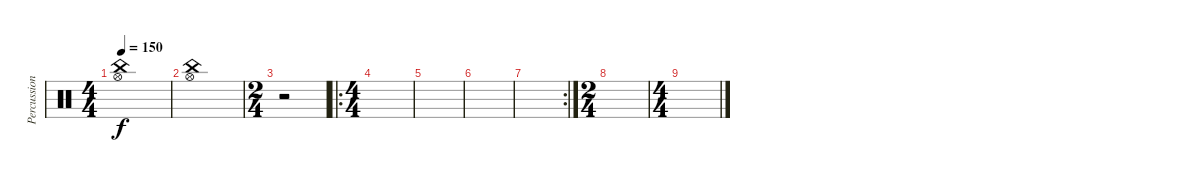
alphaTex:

\track ("Percussion" "Percussion") {instrument percussion}
\staff {score}
\articulation defaults
\ts (4 4)
\tempo 150
\clef neutral
\ks c
("China (hit)" "Hi-Hat (open)").1{dy f} |
("China (hit)" "Hi-Hat (open)").1 |
\ts (2 4)
r.2 |
\ro
\ts (4 4)
|
|
|
\rc 2
|
\ts (2 4)
|
\ts (4 4)
